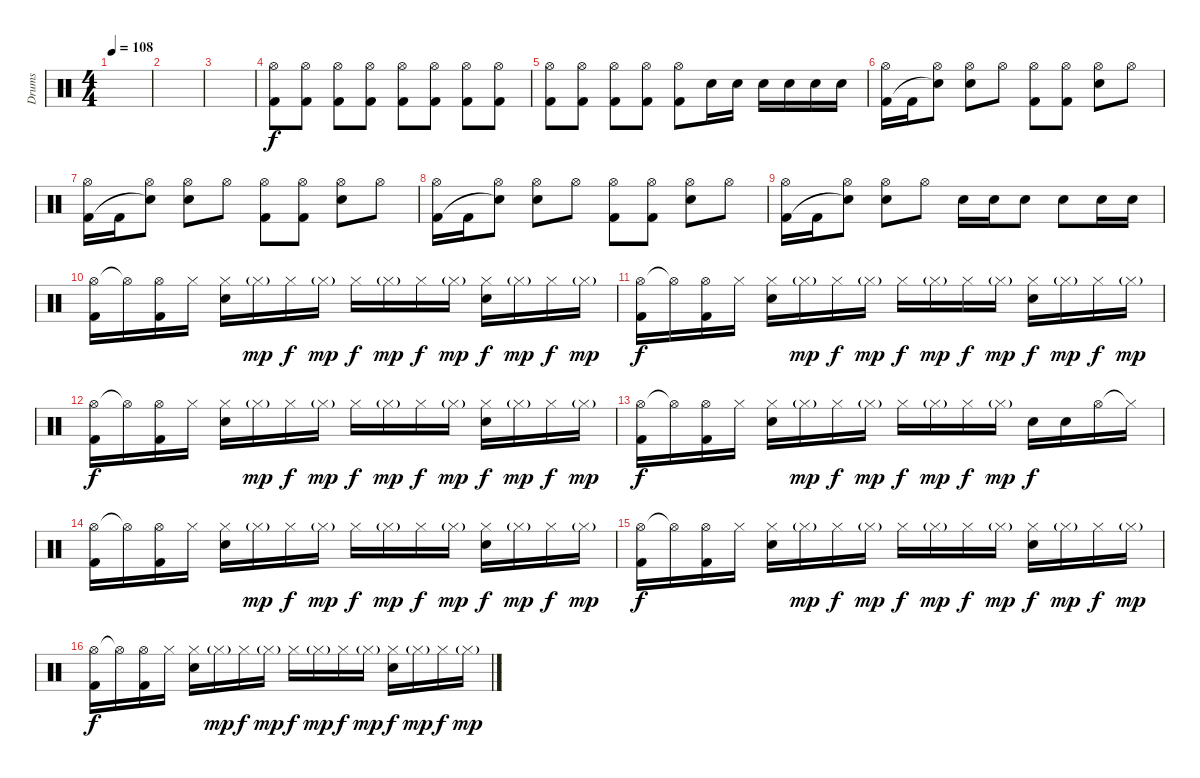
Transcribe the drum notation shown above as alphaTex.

\track ("Drums" "Drums") {instrument percussion}
\staff {score}
\articulation defaults
\ts (4 4)
\tempo 108
\clef neutral
\ks c
|
|
|
("Hi-Hat (open)" "Kick (hit) 2").8 ("Hi-Hat (open)" "Kick (hit) 2").8 ("Hi-Hat (open)" "Kick (hit) 2").8 ("Hi-Hat (open)" "Kick (hit) 2").8 ("Hi-Hat (open)" "Kick (hit) 2").8 ("Hi-Hat (open)" "Kick (hit) 2").8 ("Hi-Hat (open)" "Kick (hit) 2").8 ("Hi-Hat (open)" "Kick (hit) 2").8 |
("Hi-Hat (open)" "Kick (hit) 2").8 ("Hi-Hat (open)" "Kick (hit) 2").8 ("Hi-Hat (open)" "Kick (hit) 2").8 ("Hi-Hat (open)" "Kick (hit) 2").8 ("Hi-Hat (open)" "Kick (hit) 2").8 "Electric Snare (hit)".16 "Electric Snare (hit)".16 "Electric Snare (hit)".16 "Electric Snare (hit)".16 "Electric Snare (hit)".16 "Electric Snare (hit)".16 |
("Hi-Hat (open)" "Kick (hit) 2").16 "Kick (hit) 2".16 ("Hi-Hat (open)" "Snare (hit)"{t}).8 ("Hi-Hat (open)" "Electric Snare (hit)").8 "Hi-Hat (open)".8 ("Hi-Hat (open)" "Kick (hit) 2").8 ("Hi-Hat (open)" "Kick (hit) 2").8 ("Hi-Hat (open)" "Electric Snare (hit)").8 "Hi-Hat (open)".8 |
("Hi-Hat (open)" "Kick (hit) 2").16 "Kick (hit) 2".16 ("Hi-Hat (open)" "Snare (hit)"{t}).8 ("Hi-Hat (open)" "Electric Snare (hit)").8 "Hi-Hat (open)".8 ("Hi-Hat (open)" "Kick (hit) 2").8 ("Hi-Hat (open)" "Kick (hit) 2").8 ("Hi-Hat (open)" "Electric Snare (hit)").8 "Hi-Hat (open)".8 |
("Hi-Hat (open)" "Kick (hit) 2").16 "Kick (hit) 2".16 ("Hi-Hat (open)" "Snare (hit)"{t}).8 ("Hi-Hat (open)" "Electric Snare (hit)").8 "Hi-Hat (open)".8 ("Hi-Hat (open)" "Kick (hit) 2").8 ("Hi-Hat (open)" "Kick (hit) 2").8 ("Hi-Hat (open)" "Electric Snare (hit)").8 "Hi-Hat (open)".8 |
("Hi-Hat (open)" "Kick (hit) 2").16 "Kick (hit) 2".16 ("Hi-Hat (open)" "Snare (hit)"{t}).8 ("Hi-Hat (open)" "Electric Snare (hit)").8 "Hi-Hat (open)".8 "Electric Snare (hit)".16 "Electric Snare (hit)".16 "Electric Snare (hit)".8 "Electric Snare (hit)".8 "Electric Snare (hit)".16 "Electric Snare (hit)".16 |
("Hi-Hat (open)" "Kick (hit) 2").16 "Hi-Hat (open)"{t}.16 ("Hi-Hat (open)" "Kick (hit) 2").16 "Hi-Hat (closed)".16 ("Hi-Hat (closed)" "Electric Snare (hit)").16 "Hi-Hat (closed)"{g}.16{dy mp} "Hi-Hat (closed)".16{dy f} "Hi-Hat (closed)"{g}.16{dy mp} "Hi-Hat (closed)".16{dy f} "Hi-Hat (closed)"{g}.16{dy mp} "Hi-Hat (closed)".16{dy f} "Hi-Hat (closed)"{g}.16{dy mp} ("Hi-Hat (closed)" "Electric Snare (hit)").16{dy f} "Hi-Hat (closed)"{g}.16{dy mp} "Hi-Hat (closed)".16{dy f} "Hi-Hat (closed)"{g}.16{dy mp} |
("Hi-Hat (open)" "Kick (hit) 2").16{dy f} "Hi-Hat (open)"{t}.16 ("Hi-Hat (open)" "Kick (hit) 2").16 "Hi-Hat (closed)".16 ("Hi-Hat (closed)" "Electric Snare (hit)").16 "Hi-Hat (closed)"{g}.16{dy mp} "Hi-Hat (closed)".16{dy f} "Hi-Hat (closed)"{g}.16{dy mp} "Hi-Hat (closed)".16{dy f} "Hi-Hat (closed)"{g}.16{dy mp} "Hi-Hat (closed)".16{dy f} "Hi-Hat (closed)"{g}.16{dy mp} ("Hi-Hat (closed)" "Electric Snare (hit)").16{dy f} "Hi-Hat (closed)"{g}.16{dy mp} "Hi-Hat (closed)".16{dy f} "Hi-Hat (closed)"{g}.16{dy mp} |
("Hi-Hat (open)" "Kick (hit) 2").16{dy f} "Hi-Hat (open)"{t}.16 ("Hi-Hat (open)" "Kick (hit) 2").16 "Hi-Hat (closed)".16 ("Hi-Hat (closed)" "Electric Snare (hit)").16 "Hi-Hat (closed)"{g}.16{dy mp} "Hi-Hat (closed)".16{dy f} "Hi-Hat (closed)"{g}.16{dy mp} "Hi-Hat (closed)".16{dy f} "Hi-Hat (closed)"{g}.16{dy mp} "Hi-Hat (closed)".16{dy f} "Hi-Hat (closed)"{g}.16{dy mp} ("Hi-Hat (closed)" "Electric Snare (hit)").16{dy f} "Hi-Hat (closed)"{g}.16{dy mp} "Hi-Hat (closed)".16{dy f} "Hi-Hat (closed)"{g}.16{dy mp} |
("Hi-Hat (open)" "Kick (hit) 2").16{dy f} "Hi-Hat (open)"{t}.16 ("Hi-Hat (open)" "Kick (hit) 2").16 "Hi-Hat (closed)".16 ("Hi-Hat (closed)" "Electric Snare (hit)").16 "Hi-Hat (closed)"{g}.16{dy mp} "Hi-Hat (closed)".16{dy f} "Hi-Hat (closed)"{g}.16{dy mp} "Hi-Hat (closed)".16{dy f} "Hi-Hat (closed)"{g}.16{dy mp} "Hi-Hat (closed)".16{dy f} "Hi-Hat (closed)"{g}.16{dy mp} "Electric Snare (hit)".16{dy f} "Electric Snare (hit)".16 "Hi-Hat (open)".16 "Hi-Hat (closed)"{t}.16 |
("Hi-Hat (open)" "Kick (hit) 2").16 "Hi-Hat (open)"{t}.16 ("Hi-Hat (open)" "Kick (hit) 2").16 "Hi-Hat (closed)".16 ("Hi-Hat (closed)" "Electric Snare (hit)").16 "Hi-Hat (closed)"{g}.16{dy mp} "Hi-Hat (closed)".16{dy f} "Hi-Hat (closed)"{g}.16{dy mp} "Hi-Hat (closed)".16{dy f} "Hi-Hat (closed)"{g}.16{dy mp} "Hi-Hat (closed)".16{dy f} "Hi-Hat (closed)"{g}.16{dy mp} ("Hi-Hat (closed)" "Electric Snare (hit)").16{dy f} "Hi-Hat (closed)"{g}.16{dy mp} "Hi-Hat (closed)".16{dy f} "Hi-Hat (closed)"{g}.16{dy mp} |
("Hi-Hat (open)" "Kick (hit) 2").16{dy f} "Hi-Hat (open)"{t}.16 ("Hi-Hat (open)" "Kick (hit) 2").16 "Hi-Hat (closed)".16 ("Hi-Hat (closed)" "Electric Snare (hit)").16 "Hi-Hat (closed)"{g}.16{dy mp} "Hi-Hat (closed)".16{dy f} "Hi-Hat (closed)"{g}.16{dy mp} "Hi-Hat (closed)".16{dy f} "Hi-Hat (closed)"{g}.16{dy mp} "Hi-Hat (closed)".16{dy f} "Hi-Hat (closed)"{g}.16{dy mp} ("Hi-Hat (closed)" "Electric Snare (hit)").16{dy f} "Hi-Hat (closed)"{g}.16{dy mp} "Hi-Hat (closed)".16{dy f} "Hi-Hat (closed)"{g}.16{dy mp} |
("Hi-Hat (open)" "Kick (hit) 2").16{dy f} "Hi-Hat (open)"{t}.16 ("Hi-Hat (open)" "Kick (hit) 2").16 "Hi-Hat (closed)".16 ("Hi-Hat (closed)" "Electric Snare (hit)").16 "Hi-Hat (closed)"{g}.16{dy mp} "Hi-Hat (closed)".16{dy f} "Hi-Hat (closed)"{g}.16{dy mp} "Hi-Hat (closed)".16{dy f} "Hi-Hat (closed)"{g}.16{dy mp} "Hi-Hat (closed)".16{dy f} "Hi-Hat (closed)"{g}.16{dy mp} ("Hi-Hat (closed)" "Electric Snare (hit)").16{dy f} "Hi-Hat (closed)"{g}.16{dy mp} "Hi-Hat (closed)".16{dy f} "Hi-Hat (closed)"{g}.16{dy mp}
